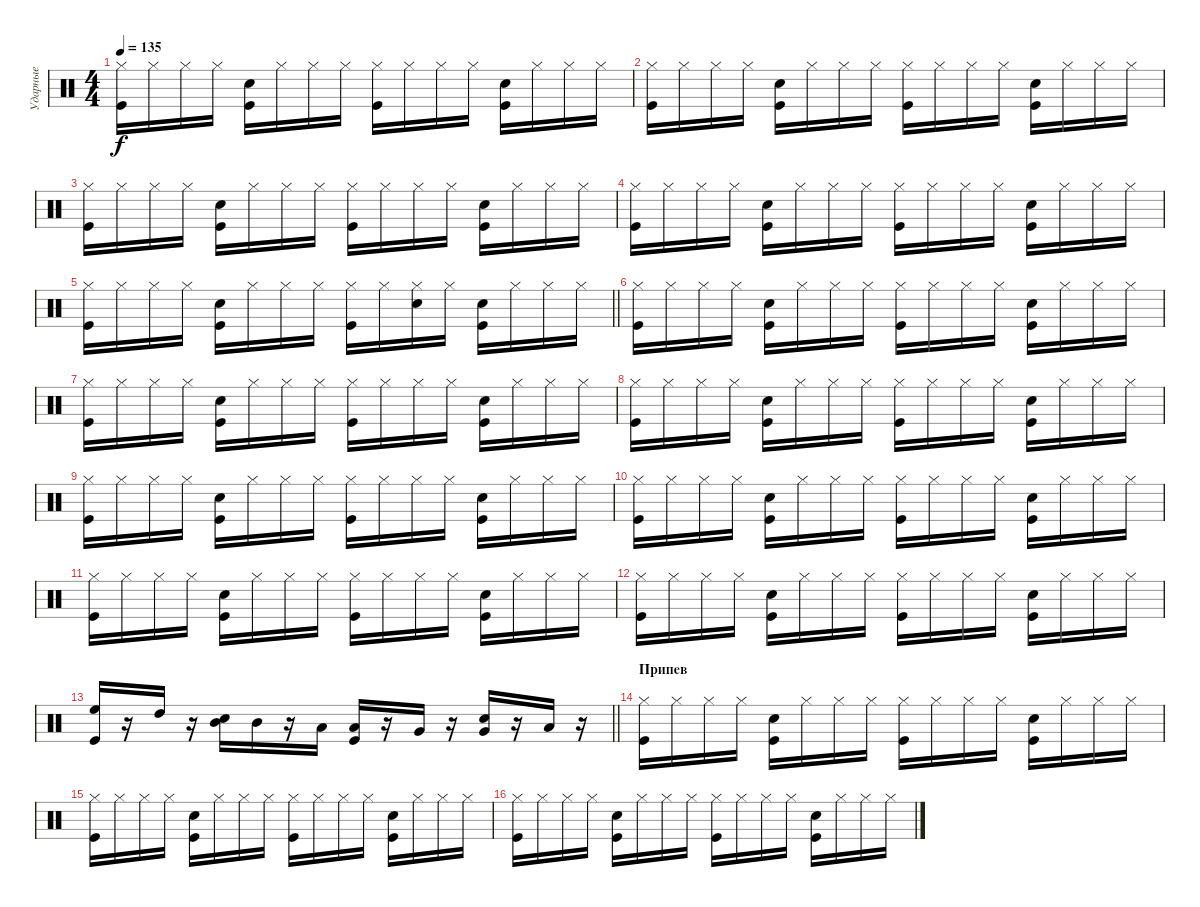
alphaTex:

\track ("Ударные" "Ударные") {instrument percussion}
\staff {score}
\articulation defaults
\ts (4 4)
\tempo 135
\clef neutral
\ks c
("Hi-Hat (closed)" "Kick (hit)").16{dy f} "Hi-Hat (closed)".16 "Hi-Hat (closed)".16 "Hi-Hat (closed)".16 ("Kick (hit)" "Snare (hit) 2").16 "Hi-Hat (closed)".16 "Hi-Hat (closed)".16 "Hi-Hat (closed)".16 ("Hi-Hat (closed)" "Kick (hit)").16 "Hi-Hat (closed)".16 "Hi-Hat (closed)".16 "Hi-Hat (closed)".16 ("Kick (hit)" "Snare (hit) 2").16 "Hi-Hat (closed)".16 "Hi-Hat (closed)".16 "Hi-Hat (closed)".16 |
("Hi-Hat (closed)" "Kick (hit)").16 "Hi-Hat (closed)".16 "Hi-Hat (closed)".16 "Hi-Hat (closed)".16 ("Kick (hit)" "Snare (hit) 2").16 "Hi-Hat (closed)".16 "Hi-Hat (closed)".16 "Hi-Hat (closed)".16 ("Hi-Hat (closed)" "Kick (hit)").16 "Hi-Hat (closed)".16 "Hi-Hat (closed)".16 "Hi-Hat (closed)".16 ("Kick (hit)" "Snare (hit) 2").16 "Hi-Hat (closed)".16 "Hi-Hat (closed)".16 "Hi-Hat (closed)".16 |
("Hi-Hat (closed)" "Kick (hit)").16 "Hi-Hat (closed)".16 "Hi-Hat (closed)".16 "Hi-Hat (closed)".16 ("Kick (hit)" "Snare (hit) 2").16 "Hi-Hat (closed)".16 "Hi-Hat (closed)".16 "Hi-Hat (closed)".16 ("Hi-Hat (closed)" "Kick (hit)").16 "Hi-Hat (closed)".16 "Hi-Hat (closed)".16 "Hi-Hat (closed)".16 ("Kick (hit)" "Snare (hit) 2").16 "Hi-Hat (closed)".16 "Hi-Hat (closed)".16 "Hi-Hat (closed)".16 |
("Hi-Hat (closed)" "Kick (hit)").16 "Hi-Hat (closed)".16 "Hi-Hat (closed)".16 "Hi-Hat (closed)".16 ("Kick (hit)" "Snare (hit) 2").16 "Hi-Hat (closed)".16 "Hi-Hat (closed)".16 "Hi-Hat (closed)".16 ("Hi-Hat (closed)" "Kick (hit)").16 "Hi-Hat (closed)".16 "Hi-Hat (closed)".16 "Hi-Hat (closed)".16 ("Kick (hit)" "Snare (hit) 2").16 "Hi-Hat (closed)".16 "Hi-Hat (closed)".16 "Hi-Hat (closed)".16 |
\barLineRight lightlight
("Hi-Hat (closed)" "Kick (hit)").16 "Hi-Hat (closed)".16 "Hi-Hat (closed)".16 "Hi-Hat (closed)".16 ("Kick (hit)" "Snare (hit) 2").16 "Hi-Hat (closed)".16 "Hi-Hat (closed)".16 "Hi-Hat (closed)".16 ("Hi-Hat (closed)" "Kick (hit)").16 "Hi-Hat (closed)".16 ("Hi-Hat (closed)" "Snare (hit) 2").16 "Hi-Hat (closed)".16 ("Kick (hit)" "Snare (hit) 2").16 "Hi-Hat (closed)".16 "Hi-Hat (closed)".16 "Hi-Hat (closed)".16 |
\section ("" "")
("Hi-Hat (closed)" "Kick (hit)").16 "Hi-Hat (closed)".16 "Hi-Hat (closed)".16 "Hi-Hat (closed)".16 ("Kick (hit)" "Snare (hit) 2").16 "Hi-Hat (closed)".16 "Hi-Hat (closed)".16 "Hi-Hat (closed)".16 ("Hi-Hat (closed)" "Kick (hit)").16 "Hi-Hat (closed)".16 "Hi-Hat (closed)".16 "Hi-Hat (closed)".16 ("Kick (hit)" "Snare (hit) 2").16 "Hi-Hat (closed)".16 "Hi-Hat (closed)".16 "Hi-Hat (closed)".16 |
("Hi-Hat (closed)" "Kick (hit)").16 "Hi-Hat (closed)".16 "Hi-Hat (closed)".16 "Hi-Hat (closed)".16 ("Kick (hit)" "Snare (hit) 2").16 "Hi-Hat (closed)".16 "Hi-Hat (closed)".16 "Hi-Hat (closed)".16 ("Hi-Hat (closed)" "Kick (hit)").16 "Hi-Hat (closed)".16 "Hi-Hat (closed)".16 "Hi-Hat (closed)".16 ("Kick (hit)" "Snare (hit) 2").16 "Hi-Hat (closed)".16 "Hi-Hat (closed)".16 "Hi-Hat (closed)".16 |
("Hi-Hat (closed)" "Kick (hit)").16 "Hi-Hat (closed)".16 "Hi-Hat (closed)".16 "Hi-Hat (closed)".16 ("Kick (hit)" "Snare (hit) 2").16 "Hi-Hat (closed)".16 "Hi-Hat (closed)".16 "Hi-Hat (closed)".16 ("Hi-Hat (closed)" "Kick (hit)").16 "Hi-Hat (closed)".16 "Hi-Hat (closed)".16 "Hi-Hat (closed)".16 ("Kick (hit)" "Snare (hit) 2").16 "Hi-Hat (closed)".16 "Hi-Hat (closed)".16 "Hi-Hat (closed)".16 |
("Hi-Hat (closed)" "Kick (hit)").16 "Hi-Hat (closed)".16 "Hi-Hat (closed)".16 "Hi-Hat (closed)".16 ("Kick (hit)" "Snare (hit) 2").16 "Hi-Hat (closed)".16 "Hi-Hat (closed)".16 "Hi-Hat (closed)".16 ("Hi-Hat (closed)" "Kick (hit)").16 "Hi-Hat (closed)".16 "Hi-Hat (closed)".16 "Hi-Hat (closed)".16 ("Kick (hit)" "Snare (hit) 2").16 "Hi-Hat (closed)".16 "Hi-Hat (closed)".16 "Hi-Hat (closed)".16 |
("Hi-Hat (closed)" "Kick (hit)").16 "Hi-Hat (closed)".16 "Hi-Hat (closed)".16 "Hi-Hat (closed)".16 ("Kick (hit)" "Snare (hit) 2").16 "Hi-Hat (closed)".16 "Hi-Hat (closed)".16 "Hi-Hat (closed)".16 ("Hi-Hat (closed)" "Kick (hit)").16 "Hi-Hat (closed)".16 "Hi-Hat (closed)".16 "Hi-Hat (closed)".16 ("Kick (hit)" "Snare (hit) 2").16 "Hi-Hat (closed)".16 "Hi-Hat (closed)".16 "Hi-Hat (closed)".16 |
("Hi-Hat (closed)" "Kick (hit)").16 "Hi-Hat (closed)".16 "Hi-Hat (closed)".16 "Hi-Hat (closed)".16 ("Kick (hit)" "Snare (hit) 2").16 "Hi-Hat (closed)".16 "Hi-Hat (closed)".16 "Hi-Hat (closed)".16 ("Hi-Hat (closed)" "Kick (hit)").16 "Hi-Hat (closed)".16 "Hi-Hat (closed)".16 "Hi-Hat (closed)".16 ("Kick (hit)" "Snare (hit) 2").16 "Hi-Hat (closed)".16 "Hi-Hat (closed)".16 "Hi-Hat (closed)".16 |
("Hi-Hat (closed)" "Kick (hit)").16 "Hi-Hat (closed)".16 "Hi-Hat (closed)".16 "Hi-Hat (closed)".16 ("Kick (hit)" "Snare (hit) 2").16 "Hi-Hat (closed)".16 "Hi-Hat (closed)".16 "Hi-Hat (closed)".16 ("Hi-Hat (closed)" "Kick (hit)").16 "Hi-Hat (closed)".16 "Hi-Hat (closed)".16 "Hi-Hat (closed)".16 ("Kick (hit)" "Snare (hit) 2").16 "Hi-Hat (closed)".16 "Hi-Hat (closed)".16 "Hi-Hat (closed)".16 |
\barLineRight lightlight
("Kick (hit)" "High Floor Tom (hit)").16 r.16 "High Tom (hit)".16 r.16 ("Snare (hit) 2" "Mid Tom (hit)").16 "Mid Tom (hit)".16 r.16 "Low Tom (hit)".16 ("Kick (hit)" "Low Tom (hit)").16 r.16 "Very Low Tom (hit)".16 r.16 ("Very Low Tom (hit)" "Snare (hit) 2").16 r.16 "Low Floor Tom (hit)".16 r.16 |
\section ("" "Припев")
("Hi-Hat (closed)" "Kick (hit)").16 "Hi-Hat (closed)".16 "Hi-Hat (closed)".16 "Hi-Hat (closed)".16 ("Kick (hit)" "Snare (hit) 2").16 "Hi-Hat (closed)".16 "Hi-Hat (closed)".16 "Hi-Hat (closed)".16 ("Hi-Hat (closed)" "Kick (hit)").16 "Hi-Hat (closed)".16 "Hi-Hat (closed)".16 "Hi-Hat (closed)".16 ("Kick (hit)" "Snare (hit) 2").16 "Hi-Hat (closed)".16 "Hi-Hat (closed)".16 "Hi-Hat (closed)".16 |
("Hi-Hat (closed)" "Kick (hit)").16 "Hi-Hat (closed)".16 "Hi-Hat (closed)".16 "Hi-Hat (closed)".16 ("Kick (hit)" "Snare (hit) 2").16 "Hi-Hat (closed)".16 "Hi-Hat (closed)".16 "Hi-Hat (closed)".16 ("Hi-Hat (closed)" "Kick (hit)").16 "Hi-Hat (closed)".16 "Hi-Hat (closed)".16 "Hi-Hat (closed)".16 ("Kick (hit)" "Snare (hit) 2").16 "Hi-Hat (closed)".16 "Hi-Hat (closed)".16 "Hi-Hat (closed)".16 |
("Hi-Hat (closed)" "Kick (hit)").16 "Hi-Hat (closed)".16 "Hi-Hat (closed)".16 "Hi-Hat (closed)".16 ("Kick (hit)" "Snare (hit) 2").16 "Hi-Hat (closed)".16 "Hi-Hat (closed)".16 "Hi-Hat (closed)".16 ("Hi-Hat (closed)" "Kick (hit)").16 "Hi-Hat (closed)".16 "Hi-Hat (closed)".16 "Hi-Hat (closed)".16 ("Kick (hit)" "Snare (hit) 2").16 "Hi-Hat (closed)".16 "Hi-Hat (closed)".16 "Hi-Hat (closed)".16
